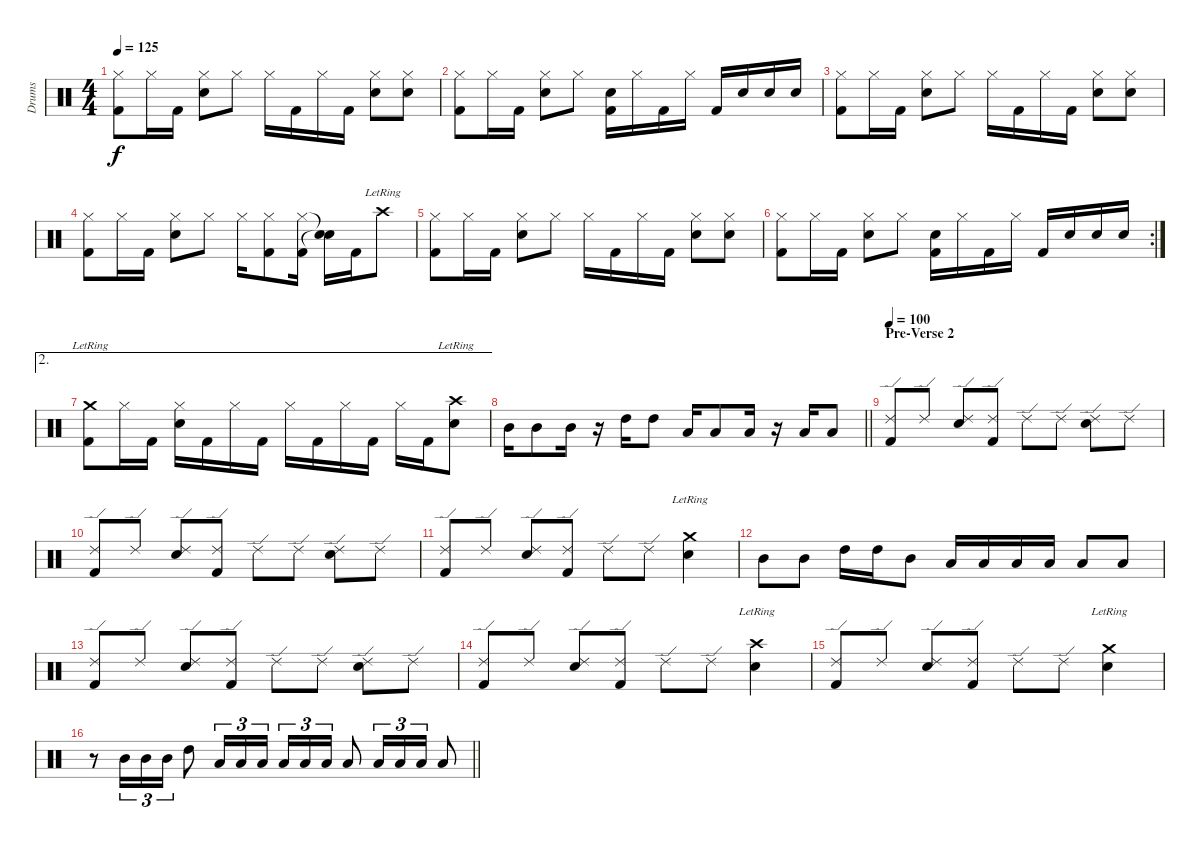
\track ("Drums" "Drums") {instrument percussion}
\staff {score}
\articulation defaults
\ts (4 4)
\tempo 125
\clef neutral
\ks c
("Hi-Hat (closed)" "Kick (hit) 2").8{dy f} "Hi-Hat (closed)".16 "Kick (hit) 2".16 ("Hi-Hat (closed)" "Snare (hit) 2").8 "Hi-Hat (closed)".8 "Hi-Hat (closed)".16 "Kick (hit) 2".16 "Hi-Hat (closed)".16 "Kick (hit) 2".16 ("Hi-Hat (closed)" "Snare (hit) 2").8 ("Hi-Hat (closed)" "Snare (hit) 2").8 |
("Hi-Hat (closed)" "Kick (hit) 2").8 "Hi-Hat (closed)".16 "Kick (hit) 2".16 ("Hi-Hat (closed)" "Snare (hit) 2").8 "Hi-Hat (closed)".8 ("Snare (hit) 2" "Kick (hit) 2").16 "Hi-Hat (closed)".16 "Kick (hit) 2".16 "Hi-Hat (closed)".16 "Kick (hit) 2".16 "Snare (hit) 2".16 "Snare (hit) 2".16 "Snare (hit) 2".16 |
("Hi-Hat (closed)" "Kick (hit) 2").8 "Hi-Hat (closed)".16 "Kick (hit) 2".16 ("Hi-Hat (closed)" "Snare (hit) 2").8 "Hi-Hat (closed)".8 "Hi-Hat (closed)".16 "Kick (hit) 2".16 "Hi-Hat (closed)".16 "Kick (hit) 2".16 ("Hi-Hat (closed)" "Snare (hit) 2").8 ("Hi-Hat (closed)" "Snare (hit) 2").8 |
("Hi-Hat (closed)" "Kick (hit) 2").8 "Hi-Hat (closed)".16 "Kick (hit) 2".16 ("Hi-Hat (closed)" "Snare (hit) 2").8 "Hi-Hat (closed)".8 "Hi-Hat (closed)".16 ("Hi-Hat (closed)" "Kick (hit) 2").8 ("Hi-Hat (closed)" "Kick (hit) 2").16 ("Snare (hit)"{t} "Snare (hit)"{t}).16 "Kick (hit) 2".16 "Crash high (hit)"{lr}.8 |
("Hi-Hat (closed)" "Kick (hit) 2").8 "Hi-Hat (closed)".16 "Kick (hit) 2".16 ("Hi-Hat (closed)" "Snare (hit) 2").8 "Hi-Hat (closed)".8 "Hi-Hat (closed)".16 "Kick (hit) 2".16 "Hi-Hat (closed)".16 "Kick (hit) 2".16 ("Hi-Hat (closed)" "Snare (hit) 2").8 ("Hi-Hat (closed)" "Snare (hit) 2").8 |
\rc 2
("Hi-Hat (closed)" "Kick (hit) 2").8 "Hi-Hat (closed)".16 "Kick (hit) 2".16 ("Hi-Hat (closed)" "Snare (hit) 2").8 "Hi-Hat (closed)".8 ("Snare (hit) 2" "Kick (hit) 2").16 "Hi-Hat (closed)".16 "Kick (hit) 2".16 "Hi-Hat (closed)".16 "Kick (hit) 2".16 "Snare (hit) 2".16 "Snare (hit) 2".16 "Snare (hit) 2".16 |
\ae 2
("Crash medium (hit)"{lr} "Kick (hit) 2").8 "Hi-Hat (closed)".16 "Kick (hit) 2".16 ("Hi-Hat (closed)" "Snare (hit) 2").16 "Kick (hit) 2".16 "Hi-Hat (closed)".16 "Kick (hit) 2".16 "Hi-Hat (closed)".16 "Kick (hit) 2".16 "Hi-Hat (closed)".16 "Kick (hit) 2".16 "Hi-Hat (closed)".16 "Kick (hit) 2".16 ("Crash high (hit)"{lr} "Snare (hit) 2").8 |
\barLineRight lightlight "Mid Tom (hit)".16 "Mid Tom (hit)".8 "Mid Tom (hit)".16
r.16 "High Tom (hit)".16 "High Tom (hit)".8 "Low Tom (hit)".16 "Low Tom (hit)".8 "Low Tom (hit)".16 r.16 "Low Tom (hit)".16 "Low Tom (hit)".8 |
\section ("" "Pre-Verse 2")
\tempo 100
("Ride (edge) 2" "Kick (hit) 2").8 "Ride (edge) 2".8 ("Ride (edge) 2" "Snare (hit) 2").8 ("Ride (edge) 2" "Kick (hit) 2").8 "Ride (edge) 2".8 "Ride (edge) 2".8 ("Ride (edge) 2" "Snare (hit) 2").8 "Ride (edge) 2".8 |
("Ride (edge) 2" "Kick (hit) 2").8 "Ride (edge) 2".8 ("Ride (edge) 2" "Snare (hit) 2").8 ("Ride (edge) 2" "Kick (hit) 2").8 "Ride (edge) 2".8 "Ride (edge) 2".8 ("Ride (edge) 2" "Snare (hit) 2").8 "Ride (edge) 2".8 |
("Ride (edge) 2" "Kick (hit) 2").8 "Ride (edge) 2".8 ("Ride (edge) 2" "Snare (hit) 2").8 ("Ride (edge) 2" "Kick (hit) 2").8 "Ride (edge) 2".8 "Ride (edge) 2".8 ("Crash medium (hit)"{lr} "Snare (hit) 2").4 |
"Mid Tom (hit)".8 "Mid Tom (hit)".8 "High Tom (hit)".16 "High Tom (hit)".16 "Mid Tom (hit)".8 "Low Tom (hit)".16 "Low Tom (hit)".16 "Low Tom (hit)".16 "Low Tom (hit)".16 "Low Tom (hit)".8 "Low Tom (hit)".8 |
("Ride (edge) 2" "Kick (hit) 2").8 "Ride (edge) 2".8 ("Ride (edge) 2" "Snare (hit) 2").8 ("Ride (edge) 2" "Kick (hit) 2").8 "Ride (edge) 2".8 "Ride (edge) 2".8 ("Ride (edge) 2" "Snare (hit) 2").8 "Ride (edge) 2".8 |
("Ride (edge) 2" "Kick (hit) 2").8 "Ride (edge) 2".8 ("Ride (edge) 2" "Snare (hit) 2").8 ("Ride (edge) 2" "Kick (hit) 2").8 "Ride (edge) 2".8 "Ride (edge) 2".8 ("Crash high (hit)"{lr} "Snare (hit) 2").4 |
("Ride (edge) 2" "Kick (hit) 2").8 "Ride (edge) 2".8 ("Ride (edge) 2" "Snare (hit) 2").8 ("Ride (edge) 2" "Kick (hit) 2").8 "Ride (edge) 2".8 "Ride (edge) 2".8 ("Crash medium (hit)"{lr} "Snare (hit) 2").4 |
\barLineRight lightlight
r.8 "Mid Tom (hit)".16{tu (3 2)} "Mid Tom (hit)".16{tu (3 2)} "Mid Tom (hit)".16{tu (3 2)} "High Tom (hit)".8 "Low Tom (hit)".16{tu (3 2)} "Low Tom (hit)".16{tu (3 2)} "Low Tom (hit)".16{tu (3 2)} "Low Tom (hit)".16{tu (3 2)} "Low Tom (hit)".16{tu (3 2)} "Low Tom (hit)".16{tu (3 2)} "Low Tom (hit)".8 "Low Tom (hit)".16{tu (3 2)} "Low Tom (hit)".16{tu (3 2)} "Low Tom (hit)".16{tu (3 2)} "Low Tom (hit)".8
